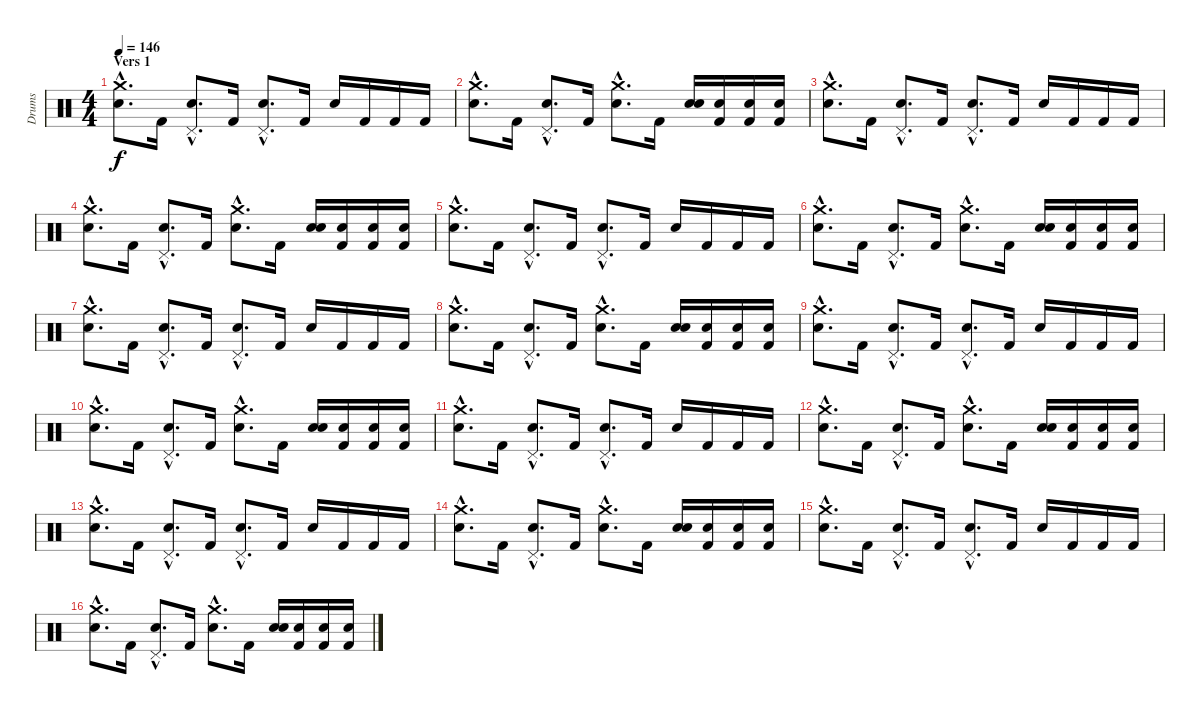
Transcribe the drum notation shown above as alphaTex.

\track ("Drums" "Drums") {instrument percussion}
\staff {score}
\articulation defaults
\ts (4 4)
\section ("" "Vers 1")
\tempo 146
\clef neutral
\ks c
("Electric Snare (hit)"{hac} "Crash medium (hit)").8{d dy f} "Kick (hit) 2".16 ("Electric Snare (hit)"{hac} "Pedal Hi-Hat (hit)"{hac}).8{d} "Kick (hit) 2".16 ("Electric Snare (hit)"{hac} "Pedal Hi-Hat (hit)"{hac}).8{d} "Kick (hit) 2".16 "Electric Snare (hit)".16 "Kick (hit) 2".16 "Kick (hit) 2".16 "Kick (hit) 2".16 |
("Electric Snare (hit)"{hac} "Crash medium (hit)").8{d} "Kick (hit) 2".16 ("Electric Snare (hit)"{hac} "Pedal Hi-Hat (hit)"{hac}).8{d} "Kick (hit) 2".16 ("Electric Snare (hit)"{hac} "Crash medium (hit)"{hac}).8{d} "Kick (hit) 2".16 ("Electric Snare (hit)" "Snare (hit) 2").16 ("Kick (hit) 2" "Snare (hit) 2").16 ("Kick (hit) 2" "Snare (hit) 2").16 ("Kick (hit) 2" "Snare (hit) 2").16 |
("Electric Snare (hit)"{hac} "Crash medium (hit)").8{d} "Kick (hit) 2".16 ("Electric Snare (hit)"{hac} "Pedal Hi-Hat (hit)"{hac}).8{d} "Kick (hit) 2".16 ("Electric Snare (hit)"{hac} "Pedal Hi-Hat (hit)"{hac}).8{d} "Kick (hit) 2".16 "Electric Snare (hit)".16 "Kick (hit) 2".16 "Kick (hit) 2".16 "Kick (hit) 2".16 |
("Electric Snare (hit)"{hac} "Crash medium (hit)").8{d} "Kick (hit) 2".16 ("Electric Snare (hit)"{hac} "Pedal Hi-Hat (hit)"{hac}).8{d} "Kick (hit) 2".16 ("Electric Snare (hit)"{hac} "Crash medium (hit)"{hac}).8{d} "Kick (hit) 2".16 ("Electric Snare (hit)" "Snare (hit) 2").16 ("Kick (hit) 2" "Snare (hit) 2").16 ("Kick (hit) 2" "Snare (hit) 2").16 ("Kick (hit) 2" "Snare (hit) 2").16 |
("Electric Snare (hit)"{hac} "Crash medium (hit)").8{d} "Kick (hit) 2".16 ("Electric Snare (hit)"{hac} "Pedal Hi-Hat (hit)"{hac}).8{d} "Kick (hit) 2".16 ("Electric Snare (hit)"{hac} "Pedal Hi-Hat (hit)"{hac}).8{d} "Kick (hit) 2".16 "Electric Snare (hit)".16 "Kick (hit) 2".16 "Kick (hit) 2".16 "Kick (hit) 2".16 |
("Electric Snare (hit)"{hac} "Crash medium (hit)").8{d} "Kick (hit) 2".16 ("Electric Snare (hit)"{hac} "Pedal Hi-Hat (hit)"{hac}).8{d} "Kick (hit) 2".16 ("Electric Snare (hit)"{hac} "Crash medium (hit)"{hac}).8{d} "Kick (hit) 2".16 ("Electric Snare (hit)" "Snare (hit) 2").16 ("Kick (hit) 2" "Snare (hit) 2").16 ("Kick (hit) 2" "Snare (hit) 2").16 ("Kick (hit) 2" "Snare (hit) 2").16 |
("Electric Snare (hit)"{hac} "Crash medium (hit)").8{d} "Kick (hit) 2".16 ("Electric Snare (hit)"{hac} "Pedal Hi-Hat (hit)"{hac}).8{d} "Kick (hit) 2".16 ("Electric Snare (hit)"{hac} "Pedal Hi-Hat (hit)"{hac}).8{d} "Kick (hit) 2".16 "Electric Snare (hit)".16 "Kick (hit) 2".16 "Kick (hit) 2".16 "Kick (hit) 2".16 |
("Electric Snare (hit)"{hac} "Crash medium (hit)").8{d} "Kick (hit) 2".16 ("Electric Snare (hit)"{hac} "Pedal Hi-Hat (hit)"{hac}).8{d} "Kick (hit) 2".16 ("Electric Snare (hit)"{hac} "Crash medium (hit)"{hac}).8{d} "Kick (hit) 2".16 ("Electric Snare (hit)" "Snare (hit) 2").16 ("Kick (hit) 2" "Snare (hit) 2").16 ("Kick (hit) 2" "Snare (hit) 2").16 ("Kick (hit) 2" "Snare (hit) 2").16 |
("Electric Snare (hit)"{hac} "Crash medium (hit)").8{d} "Kick (hit) 2".16 ("Electric Snare (hit)"{hac} "Pedal Hi-Hat (hit)"{hac}).8{d} "Kick (hit) 2".16 ("Electric Snare (hit)"{hac} "Pedal Hi-Hat (hit)"{hac}).8{d} "Kick (hit) 2".16 "Electric Snare (hit)".16 "Kick (hit) 2".16 "Kick (hit) 2".16 "Kick (hit) 2".16 |
("Electric Snare (hit)"{hac} "Crash medium (hit)").8{d} "Kick (hit) 2".16 ("Electric Snare (hit)"{hac} "Pedal Hi-Hat (hit)"{hac}).8{d} "Kick (hit) 2".16 ("Electric Snare (hit)"{hac} "Crash medium (hit)"{hac}).8{d} "Kick (hit) 2".16 ("Electric Snare (hit)" "Snare (hit) 2").16 ("Kick (hit) 2" "Snare (hit) 2").16 ("Kick (hit) 2" "Snare (hit) 2").16 ("Kick (hit) 2" "Snare (hit) 2").16 |
("Electric Snare (hit)"{hac} "Crash medium (hit)").8{d} "Kick (hit) 2".16 ("Electric Snare (hit)"{hac} "Pedal Hi-Hat (hit)"{hac}).8{d} "Kick (hit) 2".16 ("Electric Snare (hit)"{hac} "Pedal Hi-Hat (hit)"{hac}).8{d} "Kick (hit) 2".16 "Electric Snare (hit)".16 "Kick (hit) 2".16 "Kick (hit) 2".16 "Kick (hit) 2".16 |
("Electric Snare (hit)"{hac} "Crash medium (hit)").8{d} "Kick (hit) 2".16 ("Electric Snare (hit)"{hac} "Pedal Hi-Hat (hit)"{hac}).8{d} "Kick (hit) 2".16 ("Electric Snare (hit)"{hac} "Crash medium (hit)"{hac}).8{d} "Kick (hit) 2".16 ("Electric Snare (hit)" "Snare (hit) 2").16 ("Kick (hit) 2" "Snare (hit) 2").16 ("Kick (hit) 2" "Snare (hit) 2").16 ("Kick (hit) 2" "Snare (hit) 2").16 |
("Electric Snare (hit)"{hac} "Crash medium (hit)").8{d} "Kick (hit) 2".16 ("Electric Snare (hit)"{hac} "Pedal Hi-Hat (hit)"{hac}).8{d} "Kick (hit) 2".16 ("Electric Snare (hit)"{hac} "Pedal Hi-Hat (hit)"{hac}).8{d} "Kick (hit) 2".16 "Electric Snare (hit)".16 "Kick (hit) 2".16 "Kick (hit) 2".16 "Kick (hit) 2".16 |
("Electric Snare (hit)"{hac} "Crash medium (hit)").8{d} "Kick (hit) 2".16 ("Electric Snare (hit)"{hac} "Pedal Hi-Hat (hit)"{hac}).8{d} "Kick (hit) 2".16 ("Electric Snare (hit)"{hac} "Crash medium (hit)"{hac}).8{d} "Kick (hit) 2".16 ("Electric Snare (hit)" "Snare (hit) 2").16 ("Kick (hit) 2" "Snare (hit) 2").16 ("Kick (hit) 2" "Snare (hit) 2").16 ("Kick (hit) 2" "Snare (hit) 2").16 |
("Electric Snare (hit)"{hac} "Crash medium (hit)").8{d} "Kick (hit) 2".16 ("Electric Snare (hit)"{hac} "Pedal Hi-Hat (hit)"{hac}).8{d} "Kick (hit) 2".16 ("Electric Snare (hit)"{hac} "Pedal Hi-Hat (hit)"{hac}).8{d} "Kick (hit) 2".16 "Electric Snare (hit)".16 "Kick (hit) 2".16 "Kick (hit) 2".16 "Kick (hit) 2".16 |
("Electric Snare (hit)"{hac} "Crash medium (hit)").8{d} "Kick (hit) 2".16 ("Electric Snare (hit)"{hac} "Pedal Hi-Hat (hit)"{hac}).8{d} "Kick (hit) 2".16 ("Electric Snare (hit)"{hac} "Crash medium (hit)"{hac}).8{d} "Kick (hit) 2".16 ("Electric Snare (hit)" "Snare (hit) 2").16 ("Kick (hit) 2" "Snare (hit) 2").16 ("Kick (hit) 2" "Snare (hit) 2").16 ("Kick (hit) 2" "Snare (hit) 2").16
